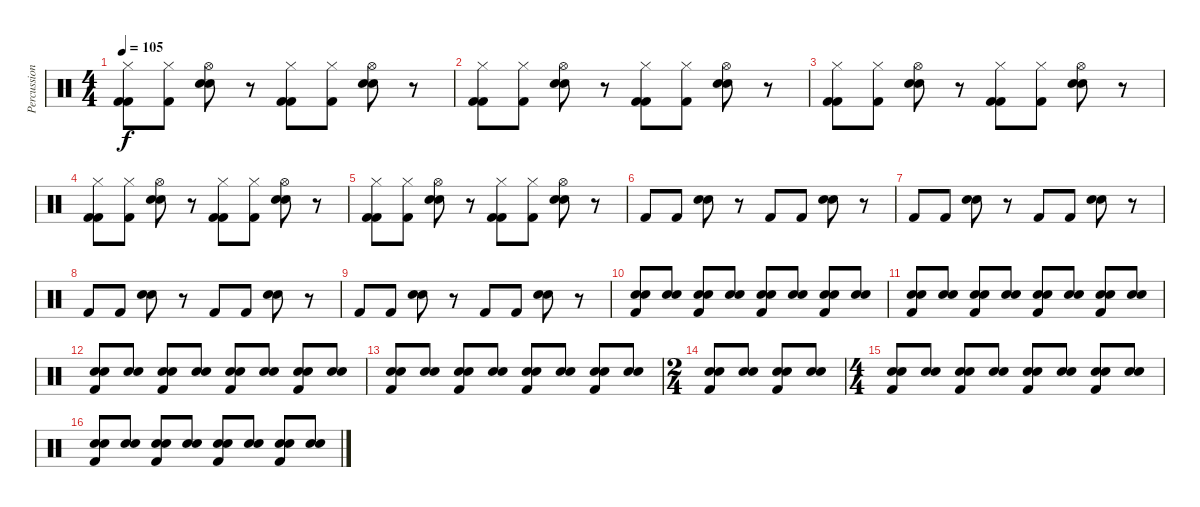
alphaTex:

\track ("Percussions" "Percussion") {instrument percussion}
\staff {score}
\articulation defaults
\ts (4 4)
\tempo 105
\clef neutral
\ks c
("Hi-Hat (closed)" "Kick (hit) 2" "Kick (hit) 2").8{dy f volume 12} ("Hi-Hat (closed)" "Kick (hit) 2").8 ("Hi-Hat (open)" "Electric Snare (hit)" "Electric Snare (hit)").8 r.8 ("Hi-Hat (closed)" "Kick (hit) 2" "Kick (hit) 2").8 ("Hi-Hat (closed)" "Kick (hit) 2").8 ("Hi-Hat (open)" "Electric Snare (hit)" "Electric Snare (hit)").8 r.8 |
("Hi-Hat (closed)" "Kick (hit) 2" "Kick (hit) 2").8{volume 12} ("Hi-Hat (closed)" "Kick (hit) 2").8 ("Hi-Hat (open)" "Electric Snare (hit)" "Electric Snare (hit)").8 r.8 ("Hi-Hat (closed)" "Kick (hit) 2" "Kick (hit) 2").8 ("Hi-Hat (closed)" "Kick (hit) 2").8 ("Hi-Hat (open)" "Electric Snare (hit)" "Electric Snare (hit)").8 r.8 |
("Hi-Hat (closed)" "Kick (hit) 2" "Kick (hit) 2").8{volume 12} ("Hi-Hat (closed)" "Kick (hit) 2").8 ("Hi-Hat (open)" "Electric Snare (hit)" "Electric Snare (hit)").8 r.8 ("Hi-Hat (closed)" "Kick (hit) 2" "Kick (hit) 2").8 ("Hi-Hat (closed)" "Kick (hit) 2").8 ("Hi-Hat (open)" "Electric Snare (hit)" "Electric Snare (hit)").8 r.8 |
("Hi-Hat (closed)" "Kick (hit) 2" "Kick (hit) 2").8{volume 12} ("Hi-Hat (closed)" "Kick (hit) 2").8 ("Hi-Hat (open)" "Electric Snare (hit)" "Electric Snare (hit)").8 r.8 ("Hi-Hat (closed)" "Kick (hit) 2" "Kick (hit) 2").8 ("Hi-Hat (closed)" "Kick (hit) 2").8 ("Hi-Hat (open)" "Electric Snare (hit)" "Electric Snare (hit)").8 r.8 |
("Hi-Hat (closed)" "Kick (hit) 2" "Kick (hit) 2").8{volume 12} ("Hi-Hat (closed)" "Kick (hit) 2").8 ("Hi-Hat (open)" "Electric Snare (hit)" "Electric Snare (hit)").8 r.8 ("Hi-Hat (closed)" "Kick (hit) 2" "Kick (hit) 2").8 ("Hi-Hat (closed)" "Kick (hit) 2").8 ("Hi-Hat (open)" "Electric Snare (hit)" "Electric Snare (hit)").8 r.8 |
"Kick (hit) 2".8 "Kick (hit) 2".8 ("Electric Snare (hit)" "Electric Snare (hit)").8 r.8 "Kick (hit) 2".8 "Kick (hit) 2".8 ("Electric Snare (hit)" "Electric Snare (hit)").8 r.8 |
"Kick (hit) 2".8 "Kick (hit) 2".8 ("Electric Snare (hit)" "Electric Snare (hit)").8 r.8 "Kick (hit) 2".8 "Kick (hit) 2".8 ("Electric Snare (hit)" "Electric Snare (hit)").8 r.8 |
"Kick (hit) 2".8 "Kick (hit) 2".8 ("Electric Snare (hit)" "Electric Snare (hit)").8 r.8 "Kick (hit) 2".8 "Kick (hit) 2".8 ("Electric Snare (hit)" "Electric Snare (hit)").8 r.8 |
"Kick (hit) 2".8 "Kick (hit) 2".8 ("Electric Snare (hit)" "Electric Snare (hit)").8 r.8 "Kick (hit) 2".8 "Kick (hit) 2".8 ("Electric Snare (hit)" "Electric Snare (hit)").8 r.8 |
("Electric Snare (hit)" "Electric Snare (hit)" "Kick (hit) 2").8{volume 9} ("Electric Snare (hit)" "Electric Snare (hit)").8 ("Electric Snare (hit)" "Electric Snare (hit)" "Kick (hit) 2").8 ("Electric Snare (hit)" "Electric Snare (hit)").8 ("Electric Snare (hit)" "Electric Snare (hit)" "Kick (hit) 2").8 ("Electric Snare (hit)" "Electric Snare (hit)").8 ("Electric Snare (hit)" "Electric Snare (hit)" "Kick (hit) 2").8 ("Electric Snare (hit)" "Electric Snare (hit)").8 |
("Electric Snare (hit)" "Electric Snare (hit)" "Kick (hit) 2").8 ("Electric Snare (hit)" "Electric Snare (hit)").8 ("Electric Snare (hit)" "Electric Snare (hit)" "Kick (hit) 2").8 ("Electric Snare (hit)" "Electric Snare (hit)").8 ("Electric Snare (hit)" "Electric Snare (hit)" "Kick (hit) 2").8 ("Electric Snare (hit)" "Electric Snare (hit)").8 ("Electric Snare (hit)" "Electric Snare (hit)" "Kick (hit) 2").8 ("Electric Snare (hit)" "Electric Snare (hit)").8 |
("Electric Snare (hit)" "Electric Snare (hit)" "Kick (hit) 2").8 ("Electric Snare (hit)" "Electric Snare (hit)").8 ("Electric Snare (hit)" "Electric Snare (hit)" "Kick (hit) 2").8 ("Electric Snare (hit)" "Electric Snare (hit)").8 ("Electric Snare (hit)" "Electric Snare (hit)" "Kick (hit) 2").8 ("Electric Snare (hit)" "Electric Snare (hit)").8 ("Electric Snare (hit)" "Electric Snare (hit)" "Kick (hit) 2").8 ("Electric Snare (hit)" "Electric Snare (hit)").8 |
("Electric Snare (hit)" "Electric Snare (hit)" "Kick (hit) 2").8 ("Electric Snare (hit)" "Electric Snare (hit)").8 ("Electric Snare (hit)" "Electric Snare (hit)" "Kick (hit) 2").8 ("Electric Snare (hit)" "Electric Snare (hit)").8 ("Electric Snare (hit)" "Electric Snare (hit)" "Kick (hit) 2").8 ("Electric Snare (hit)" "Electric Snare (hit)").8 ("Electric Snare (hit)" "Electric Snare (hit)" "Kick (hit) 2").8 ("Electric Snare (hit)" "Electric Snare (hit)").8 |
\ts (2 4)
("Electric Snare (hit)" "Electric Snare (hit)" "Kick (hit) 2").8 ("Electric Snare (hit)" "Electric Snare (hit)").8 ("Electric Snare (hit)" "Electric Snare (hit)" "Kick (hit) 2").8 ("Electric Snare (hit)" "Electric Snare (hit)").8 |
\ts (4 4)
("Electric Snare (hit)" "Electric Snare (hit)" "Kick (hit) 2").8 ("Electric Snare (hit)" "Electric Snare (hit)").8 ("Electric Snare (hit)" "Electric Snare (hit)" "Kick (hit) 2").8 ("Electric Snare (hit)" "Electric Snare (hit)").8 ("Electric Snare (hit)" "Electric Snare (hit)" "Kick (hit) 2").8 ("Electric Snare (hit)" "Electric Snare (hit)").8 ("Electric Snare (hit)" "Electric Snare (hit)" "Kick (hit) 2").8 ("Electric Snare (hit)" "Electric Snare (hit)").8 |
("Electric Snare (hit)" "Electric Snare (hit)" "Kick (hit) 2").8 ("Electric Snare (hit)" "Electric Snare (hit)").8 ("Electric Snare (hit)" "Electric Snare (hit)" "Kick (hit) 2").8 ("Electric Snare (hit)" "Electric Snare (hit)").8 ("Electric Snare (hit)" "Electric Snare (hit)" "Kick (hit) 2").8 ("Electric Snare (hit)" "Electric Snare (hit)").8 ("Electric Snare (hit)" "Electric Snare (hit)" "Kick (hit) 2").8 ("Electric Snare (hit)" "Electric Snare (hit)").8
